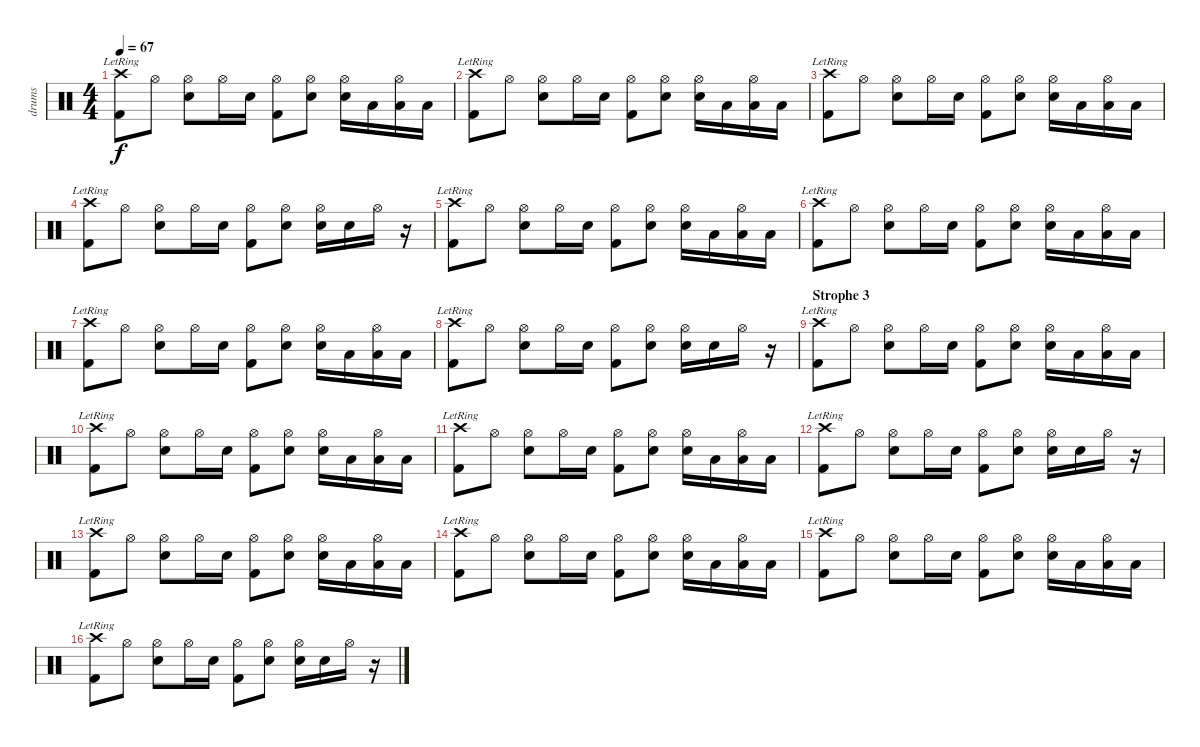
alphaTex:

\track ("drums" "drums") {instrument percussion}
\staff {score}
\articulation defaults
\ts (4 4)
\tempo 67
\clef neutral
\ks c
("Crash high (hit)"{lr} "Kick (hit) 2").8{dy f} "Hi-Hat (open)".8 ("Hi-Hat (open)" "Snare (hit) 2").8 "Hi-Hat (open)".16 "Snare (hit) 2".16 ("Hi-Hat (open)" "Kick (hit) 2").8 ("Hi-Hat (open)" "Snare (hit) 2").8 ("Hi-Hat (open)" "Snare (hit) 2").16 "Low Tom (hit)".16 ("Hi-Hat (open)" "Low Tom (hit)").16 "Low Tom (hit)".16 |
("Crash high (hit)"{lr} "Kick (hit) 2").8 "Hi-Hat (open)".8 ("Hi-Hat (open)" "Snare (hit) 2").8 "Hi-Hat (open)".16 "Snare (hit) 2".16 ("Hi-Hat (open)" "Kick (hit) 2").8 ("Hi-Hat (open)" "Snare (hit) 2").8 ("Hi-Hat (open)" "Snare (hit) 2").16 "Low Tom (hit)".16 ("Hi-Hat (open)" "Low Tom (hit)").16 "Low Tom (hit)".16 |
("Crash high (hit)"{lr} "Kick (hit) 2").8 "Hi-Hat (open)".8 ("Hi-Hat (open)" "Snare (hit) 2").8 "Hi-Hat (open)".16 "Snare (hit) 2".16 ("Hi-Hat (open)" "Kick (hit) 2").8 ("Hi-Hat (open)" "Snare (hit) 2").8 ("Hi-Hat (open)" "Snare (hit) 2").16 "Low Tom (hit)".16 ("Hi-Hat (open)" "Low Tom (hit)").16 "Low Tom (hit)".16 |
("Crash high (hit)"{lr} "Kick (hit) 2").8 "Hi-Hat (open)".8 ("Hi-Hat (open)" "Snare (hit) 2").8 "Hi-Hat (open)".16 "Snare (hit) 2".16 ("Hi-Hat (open)" "Kick (hit) 2").8 ("Hi-Hat (open)" "Snare (hit) 2").8 ("Hi-Hat (open)" "Snare (hit) 2").16 "Snare (hit) 2".16 "Hi-Hat (open)".16 r.16 |
("Crash high (hit)"{lr} "Kick (hit) 2").8 "Hi-Hat (open)".8 ("Hi-Hat (open)" "Snare (hit) 2").8 "Hi-Hat (open)".16 "Snare (hit) 2".16 ("Hi-Hat (open)" "Kick (hit) 2").8 ("Hi-Hat (open)" "Snare (hit) 2").8 ("Hi-Hat (open)" "Snare (hit) 2").16 "Low Tom (hit)".16 ("Hi-Hat (open)" "Low Tom (hit)").16 "Low Tom (hit)".16 |
("Crash high (hit)"{lr} "Kick (hit) 2").8 "Hi-Hat (open)".8 ("Hi-Hat (open)" "Snare (hit) 2").8 "Hi-Hat (open)".16 "Snare (hit) 2".16 ("Hi-Hat (open)" "Kick (hit) 2").8 ("Hi-Hat (open)" "Snare (hit) 2").8 ("Hi-Hat (open)" "Snare (hit) 2").16 "Low Tom (hit)".16 ("Hi-Hat (open)" "Low Tom (hit)").16 "Low Tom (hit)".16 |
("Crash high (hit)"{lr} "Kick (hit) 2").8 "Hi-Hat (open)".8 ("Hi-Hat (open)" "Snare (hit) 2").8 "Hi-Hat (open)".16 "Snare (hit) 2".16 ("Hi-Hat (open)" "Kick (hit) 2").8 ("Hi-Hat (open)" "Snare (hit) 2").8 ("Hi-Hat (open)" "Snare (hit) 2").16 "Low Tom (hit)".16 ("Hi-Hat (open)" "Low Tom (hit)").16 "Low Tom (hit)".16 |
("Crash high (hit)"{lr} "Kick (hit) 2").8 "Hi-Hat (open)".8 ("Hi-Hat (open)" "Snare (hit) 2").8 "Hi-Hat (open)".16 "Snare (hit) 2".16 ("Hi-Hat (open)" "Kick (hit) 2").8 ("Hi-Hat (open)" "Snare (hit) 2").8 ("Hi-Hat (open)" "Snare (hit) 2").16 "Snare (hit) 2".16 "Hi-Hat (open)".16 r.16 |
\section ("" "Strophe 3")
("Crash high (hit)"{lr} "Kick (hit) 2").8 "Hi-Hat (open)".8 ("Hi-Hat (open)" "Snare (hit) 2").8 "Hi-Hat (open)".16 "Snare (hit) 2".16 ("Hi-Hat (open)" "Kick (hit) 2").8 ("Hi-Hat (open)" "Snare (hit) 2").8 ("Hi-Hat (open)" "Snare (hit) 2").16 "Low Tom (hit)".16 ("Hi-Hat (open)" "Low Tom (hit)").16 "Low Tom (hit)".16 |
("Crash high (hit)"{lr} "Kick (hit) 2").8 "Hi-Hat (open)".8 ("Hi-Hat (open)" "Snare (hit) 2").8 "Hi-Hat (open)".16 "Snare (hit) 2".16 ("Hi-Hat (open)" "Kick (hit) 2").8 ("Hi-Hat (open)" "Snare (hit) 2").8 ("Hi-Hat (open)" "Snare (hit) 2").16 "Low Tom (hit)".16 ("Hi-Hat (open)" "Low Tom (hit)").16 "Low Tom (hit)".16 |
("Crash high (hit)"{lr} "Kick (hit) 2").8 "Hi-Hat (open)".8 ("Hi-Hat (open)" "Snare (hit) 2").8 "Hi-Hat (open)".16 "Snare (hit) 2".16 ("Hi-Hat (open)" "Kick (hit) 2").8 ("Hi-Hat (open)" "Snare (hit) 2").8 ("Hi-Hat (open)" "Snare (hit) 2").16 "Low Tom (hit)".16 ("Hi-Hat (open)" "Low Tom (hit)").16 "Low Tom (hit)".16 |
("Crash high (hit)"{lr} "Kick (hit) 2").8 "Hi-Hat (open)".8 ("Hi-Hat (open)" "Snare (hit) 2").8 "Hi-Hat (open)".16 "Snare (hit) 2".16 ("Hi-Hat (open)" "Kick (hit) 2").8 ("Hi-Hat (open)" "Snare (hit) 2").8 ("Hi-Hat (open)" "Snare (hit) 2").16 "Snare (hit) 2".16 "Hi-Hat (open)".16 r.16 |
("Crash high (hit)"{lr} "Kick (hit) 2").8 "Hi-Hat (open)".8 ("Hi-Hat (open)" "Snare (hit) 2").8 "Hi-Hat (open)".16 "Snare (hit) 2".16 ("Hi-Hat (open)" "Kick (hit) 2").8 ("Hi-Hat (open)" "Snare (hit) 2").8 ("Hi-Hat (open)" "Snare (hit) 2").16 "Low Tom (hit)".16 ("Hi-Hat (open)" "Low Tom (hit)").16 "Low Tom (hit)".16 |
("Crash high (hit)"{lr} "Kick (hit) 2").8 "Hi-Hat (open)".8 ("Hi-Hat (open)" "Snare (hit) 2").8 "Hi-Hat (open)".16 "Snare (hit) 2".16 ("Hi-Hat (open)" "Kick (hit) 2").8 ("Hi-Hat (open)" "Snare (hit) 2").8 ("Hi-Hat (open)" "Snare (hit) 2").16 "Low Tom (hit)".16 ("Hi-Hat (open)" "Low Tom (hit)").16 "Low Tom (hit)".16 |
("Crash high (hit)"{lr} "Kick (hit) 2").8 "Hi-Hat (open)".8 ("Hi-Hat (open)" "Snare (hit) 2").8 "Hi-Hat (open)".16 "Snare (hit) 2".16 ("Hi-Hat (open)" "Kick (hit) 2").8 ("Hi-Hat (open)" "Snare (hit) 2").8 ("Hi-Hat (open)" "Snare (hit) 2").16 "Low Tom (hit)".16 ("Hi-Hat (open)" "Low Tom (hit)").16 "Low Tom (hit)".16 |
("Crash high (hit)"{lr} "Kick (hit) 2").8 "Hi-Hat (open)".8 ("Hi-Hat (open)" "Snare (hit) 2").8 "Hi-Hat (open)".16 "Snare (hit) 2".16 ("Hi-Hat (open)" "Kick (hit) 2").8 ("Hi-Hat (open)" "Snare (hit) 2").8 ("Hi-Hat (open)" "Snare (hit) 2").16 "Snare (hit) 2".16 "Hi-Hat (open)".16 r.16
